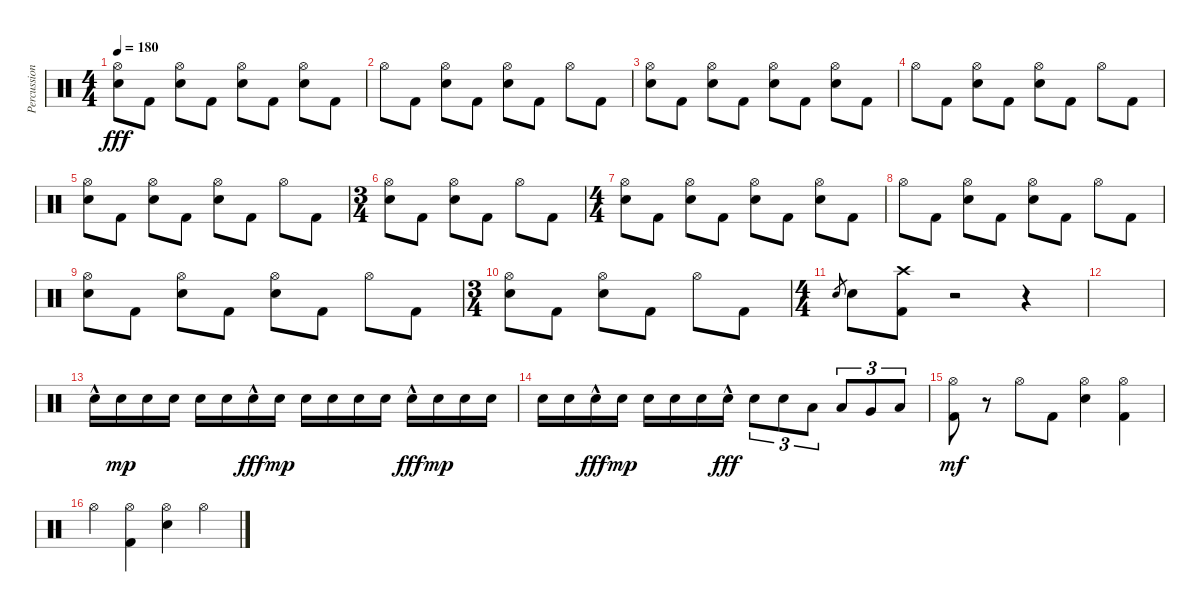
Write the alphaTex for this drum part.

\track ("Percussion" "Percussion") {instrument percussion}
\staff {score}
\articulation defaults
\ts (4 4)
\tempo 180
\clef neutral
\ks c
("Hi-Hat (open)" "Electric Snare (hit)").8{dy fff} "Kick (hit) 2".8 ("Hi-Hat (open)" "Electric Snare (hit)").8 "Kick (hit) 2".8 ("Hi-Hat (open)" "Electric Snare (hit)").8 "Kick (hit) 2".8 ("Hi-Hat (open)" "Electric Snare (hit)").8 "Kick (hit) 2".8 |
"Hi-Hat (open)".8 "Kick (hit) 2".8 ("Hi-Hat (open)" "Electric Snare (hit)").8 "Kick (hit) 2".8 ("Hi-Hat (open)" "Electric Snare (hit)").8 "Kick (hit) 2".8 "Hi-Hat (open)".8 "Kick (hit) 2".8 |
("Hi-Hat (open)" "Electric Snare (hit)").8 "Kick (hit) 2".8 ("Hi-Hat (open)" "Electric Snare (hit)").8 "Kick (hit) 2".8 ("Hi-Hat (open)" "Electric Snare (hit)").8 "Kick (hit) 2".8 ("Hi-Hat (open)" "Electric Snare (hit)").8 "Kick (hit) 2".8 |
"Hi-Hat (open)".8 "Kick (hit) 2".8 ("Hi-Hat (open)" "Electric Snare (hit)").8 "Kick (hit) 2".8 ("Hi-Hat (open)" "Electric Snare (hit)").8 "Kick (hit) 2".8 "Hi-Hat (open)".8 "Kick (hit) 2".8 |
("Hi-Hat (open)" "Electric Snare (hit)").8 "Kick (hit) 2".8 ("Hi-Hat (open)" "Electric Snare (hit)").8 "Kick (hit) 2".8 ("Hi-Hat (open)" "Electric Snare (hit)").8 "Kick (hit) 2".8 "Hi-Hat (open)".8 "Kick (hit) 2".8 |
\ts (3 4)
("Hi-Hat (open)" "Electric Snare (hit)").8 "Kick (hit) 2".8 ("Hi-Hat (open)" "Electric Snare (hit)").8 "Kick (hit) 2".8 "Hi-Hat (open)".8 "Kick (hit) 2".8 |
\ts (4 4)
("Hi-Hat (open)" "Electric Snare (hit)").8 "Kick (hit) 2".8 ("Hi-Hat (open)" "Electric Snare (hit)").8 "Kick (hit) 2".8 ("Hi-Hat (open)" "Electric Snare (hit)").8 "Kick (hit) 2".8 ("Hi-Hat (open)" "Electric Snare (hit)").8 "Kick (hit) 2".8 |
"Hi-Hat (open)".8 "Kick (hit) 2".8 ("Hi-Hat (open)" "Electric Snare (hit)").8 "Kick (hit) 2".8 ("Hi-Hat (open)" "Electric Snare (hit)").8 "Kick (hit) 2".8 "Hi-Hat (open)".8 "Kick (hit) 2".8 |
("Hi-Hat (open)" "Electric Snare (hit)").8 "Kick (hit) 2".8 ("Hi-Hat (open)" "Electric Snare (hit)").8 "Kick (hit) 2".8 ("Hi-Hat (open)" "Electric Snare (hit)").8 "Kick (hit) 2".8 "Hi-Hat (open)".8 "Kick (hit) 2".8 |
\ts (3 4)
("Hi-Hat (open)" "Electric Snare (hit)").8 "Kick (hit) 2".8 ("Hi-Hat (open)" "Electric Snare (hit)").8 "Kick (hit) 2".8 "Hi-Hat (open)".8 "Kick (hit) 2".8 |
\ts (4 4)
"Electric Snare (hit)".8{gr} "Electric Snare (hit)".8 ("Crash high (hit)" "Kick (hit) 2").8 r.2 r.4 |
|
"Electric Snare (hit)"{hac}.16 "Electric Snare (hit)".16{dy mp} "Electric Snare (hit)".16 "Electric Snare (hit)".16 "Electric Snare (hit)".16 "Electric Snare (hit)".16 "Electric Snare (hit)"{hac}.16{dy fff} "Electric Snare (hit)".16{dy mp} "Electric Snare (hit)".16 "Electric Snare (hit)".16 "Electric Snare (hit)".16 "Electric Snare (hit)".16 "Electric Snare (hit)"{hac}.16{dy fff} "Electric Snare (hit)".16{dy mp} "Electric Snare (hit)".16 "Electric Snare (hit)".16 |
"Electric Snare (hit)".16 "Electric Snare (hit)".16 "Electric Snare (hit)"{hac}.16{dy fff} "Electric Snare (hit)".16{dy mp} "Electric Snare (hit)".16 "Electric Snare (hit)".16 "Electric Snare (hit)".16 "Electric Snare (hit)"{hac}.16{dy fff} "Electric Snare (hit)".8{tu (3 2)} "Electric Snare (hit)".8{tu (3 2)} "Low Tom (hit)".8{tu (3 2)} "Low Tom (hit)".8{tu (3 2)} "Very Low Tom (hit)".8{tu (3 2)} "Low Floor Tom (hit)".8{tu (3 2)} |
("Hi-Hat (open)" "Kick (hit) 2").8{dy mf} r.8 "Hi-Hat (open)".8 "Kick (hit) 2".8 ("Hi-Hat (open)" "Electric Snare (hit)").4 ("Hi-Hat (open)" "Kick (hit) 2").4 |
"Hi-Hat (open)".4 ("Hi-Hat (open)" "Kick (hit) 2").4 ("Hi-Hat (open)" "Electric Snare (hit)").4 "Hi-Hat (open)".4
